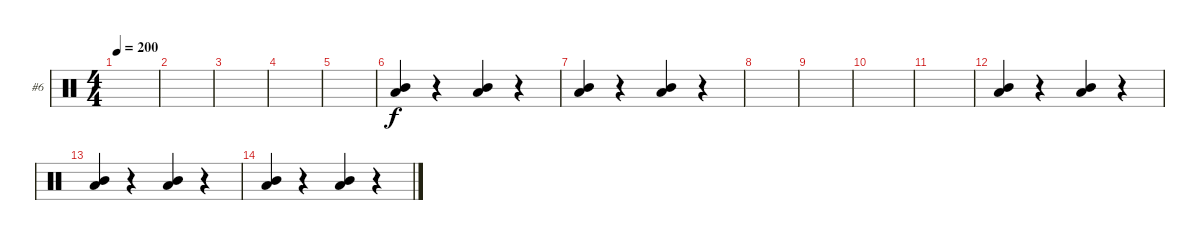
\bracketExtendMode groupsimilarinstruments
\firstSystemTrackNameOrientation horizontal
\otherSystemsTrackNameOrientation horizontal
\track ("Shawn \"Clown\" Crahan" "#6") {instrument percussion}
\staff {score}
\articulation defaults
\ts (4 4)
\tempo 200
\clef neutral
\ks c
|
|
|
|
|
("Low Tom (hit)" "Mid Tom (hit)").4 r.4 ("Low Tom (hit)" "Mid Tom (hit)").4 r.4 |
("Low Tom (hit)" "Mid Tom (hit)").4 r.4 ("Low Tom (hit)" "Mid Tom (hit)").4 r.4 |
|
|
|
|
("Low Tom (hit)" "Mid Tom (hit)").4 r.4 ("Low Tom (hit)" "Mid Tom (hit)").4 r.4 |
("Low Tom (hit)" "Mid Tom (hit)").4 r.4 ("Low Tom (hit)" "Mid Tom (hit)").4 r.4 |
("Low Tom (hit)" "Mid Tom (hit)").4 r.4 ("Low Tom (hit)" "Mid Tom (hit)").4 r.4
